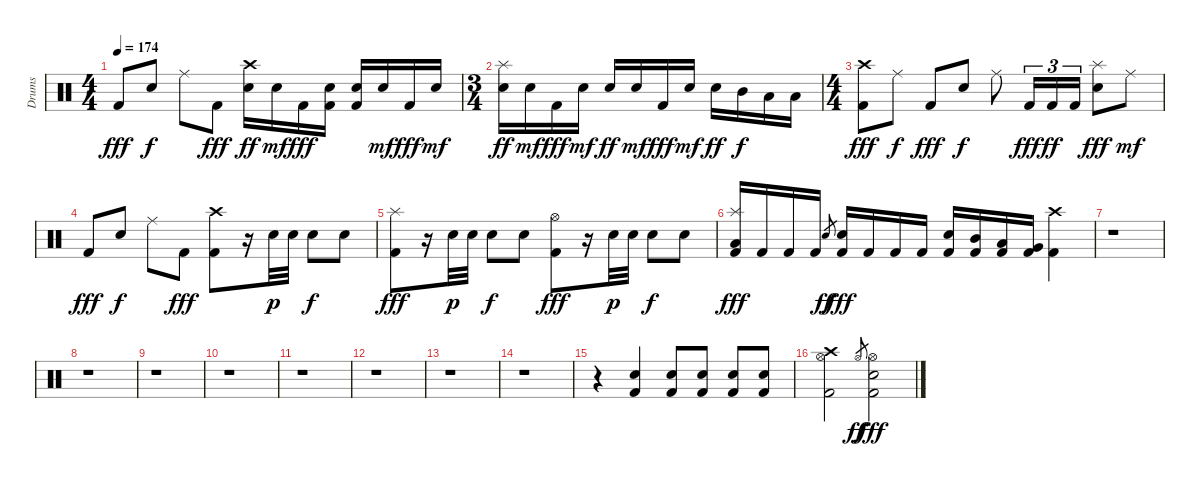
\track ("Drums" "Drums") {instrument percussion}
\staff {score}
\articulation defaults
\ts (4 4)
\tempo 174
\clef neutral
\ks c "Kick (hit) 2".8{dy fff} "Snare (hit) 2".8{dy f} "Ride (middle)".8 "Kick (hit) 2".8{dy fff}
("Crash high (hit)" "Snare (hit) 2").16{dy ff} "Snare (hit) 2".16{dy mf} "Kick (hit) 2".16{dy fff} ("Snare (hit) 2" "Kick (hit) 2").16 ("Snare (hit) 2" "Kick (hit) 2").16 "Snare (hit) 2".16{dy mf} "Kick (hit) 2".16{dy fff} "Snare (hit) 2".16{dy mf} |
\ts (3 4)
("Splash (hit)" "Snare (hit) 2").16{dy ff} "Snare (hit) 2".16{dy mf} "Kick (hit) 2".16{dy fff} "Snare (hit) 2".16{dy mf} "Snare (hit) 2".16{dy ff} "Snare (hit) 2".16{dy mf} "Kick (hit) 2".16{dy fff} "Snare (hit) 2".16{dy mf} "Snare (hit) 2".16{dy ff} "Mid Tom (hit)".16{dy f} "Low Tom (hit)".16 "Low Tom (hit)".16 |
\ts (4 4)
("Crash high (hit)" "Kick (hit) 2").8{dy fff} "Ride (middle)".8{dy f} "Kick (hit) 2".8{dy fff} "Snare (hit) 2".8{dy f} "Ride (middle)".8 "Kick (hit) 2".16{tu (3 2) dy fff} "Kick (hit) 2".16{tu (3 2) dy ff} "Kick (hit) 2".16{tu (3 2)} ("Splash (hit)" "Snare (hit) 2").8{dy fff} "Ride (middle)".8{dy mf} |
"Kick (hit) 2".8{dy fff} "Snare (hit) 2".8{dy f} "Ride (middle)".8 "Kick (hit) 2".8{dy fff} ("Crash high (hit)" "Kick (hit) 2").8 r.16 "Snare (hit) 2".32{dy p} "Snare (hit) 2".32 "Snare (hit) 2".8{dy f} "Snare (hit) 2".8 |
("Splash (hit)" "Kick (hit) 2").8{dy fff} r.16 "Snare (hit) 2".32{dy p} "Snare (hit) 2".32 "Snare (hit) 2".8{dy f} "Snare (hit) 2".8 ("Hi-Hat (open)" "Kick (hit) 2").8{dy fff} r.16 "Snare (hit) 2".32{dy p} "Snare (hit) 2".32 "Snare (hit) 2".8{dy f} "Snare (hit) 2".8 |
("Splash (hit)" "Low Tom (hit)" "Kick (hit) 2").16{dy fff} "Kick (hit) 2".16 "Kick (hit) 2".16 "Kick (hit) 2".16 "Snare (hit) 2".8{gr dy ff} ("Snare (hit) 2" "Kick (hit) 2").16{dy fff} "Kick (hit) 2".16 "Kick (hit) 2".16 "Kick (hit) 2".16 ("Snare (hit) 2" "Kick (hit) 2").16 ("Mid Tom (hit)" "Kick (hit) 2").16 ("Low Tom (hit)" "Kick (hit) 2").16 ("Very Low Tom (hit)" "Kick (hit) 2").16 ("Crash high (hit)" "Kick (hit) 2").4 |
r.1 |
r.1 |
r.1 |
r.1 |
r.1 |
r.1 |
r.1 |
r.1 |
r.4 ("Snare (hit) 2" "Kick (hit) 2").4 ("Snare (hit) 2" "Kick (hit) 2").8 ("Snare (hit) 2" "Kick (hit) 2").8 ("Snare (hit) 2" "Kick (hit) 2").8 ("Snare (hit) 2" "Kick (hit) 2").8 |
("Crash high (hit)" "Hi-Hat (open)" "Kick (hit) 2").2 "Hi-Hat (open)".8{gr dy ff} ("Hi-Hat (open)" "Snare (hit) 2" "Kick (hit) 2").2{dy fff}
